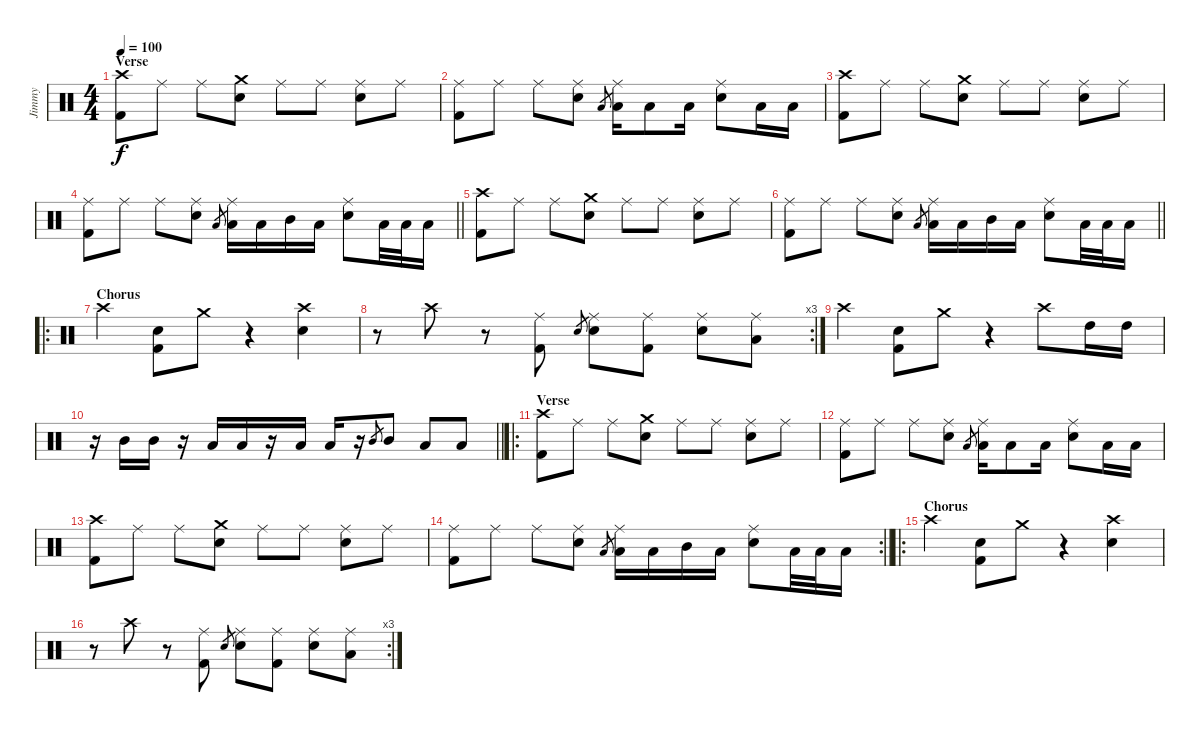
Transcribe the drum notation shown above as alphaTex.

\track ("Jimmy" "Jimmy") {instrument percussion}
\staff {score}
\articulation defaults
\ts (4 4)
\section ("" "Verse")
\tempo 100
\clef neutral
\ks c
("Crash high (hit)" "Kick (hit) 2").8{dy f} "Ride (middle)".8 "Ride (middle)".8 ("Crash medium (hit)" "Snare (hit) 2").8 "Ride (middle)".8 "Ride (middle)".8 ("Ride (middle)" "Snare (hit) 2").8 "Ride (middle)".8 |
("Ride (middle)" "Kick (hit) 2").8 "Ride (middle)".8 "Ride (middle)".8 ("Ride (middle)" "Snare (hit) 2").8 "Low Tom (hit)".8{gr} ("Ride (middle)" "Low Tom (hit)").16 "Low Tom (hit)".8 "Low Tom (hit)".16 ("Ride (middle)" "Snare (hit) 2").8 "Low Floor Tom (hit)".16 "Low Floor Tom (hit)".16 |
("Crash high (hit)" "Kick (hit) 2").8 "Ride (middle)".8 "Ride (middle)".8 ("Crash medium (hit)" "Snare (hit) 2").8 "Ride (middle)".8 "Ride (middle)".8 ("Ride (middle)" "Snare (hit) 2").8 "Ride (middle)".8 |
\barLineRight lightlight
("Ride (middle)" "Kick (hit) 2").8 "Ride (middle)".8 "Ride (middle)".8 ("Ride (middle)" "Snare (hit) 2").8 "Low Tom (hit)".8{gr} ("Ride (middle)" "Low Tom (hit)").16 "Low Tom (hit)".16 "Mid Tom (hit)".16 "Low Tom (hit)".16 ("Ride (middle)" "Snare (hit) 2").8 "Low Floor Tom (hit)".32 "Low Floor Tom (hit)".32 "Low Floor Tom (hit)".16 |
("Crash high (hit)" "Kick (hit) 2").8 "Ride (middle)".8 "Ride (middle)".8 ("Crash medium (hit)" "Snare (hit) 2").8 "Ride (middle)".8 "Ride (middle)".8 ("Ride (middle)" "Snare (hit) 2").8 "Ride (middle)".8 |
\barLineRight lightlight
("Ride (middle)" "Kick (hit) 2").8 "Ride (middle)".8 "Ride (middle)".8 ("Ride (middle)" "Snare (hit) 2").8 "Low Tom (hit)".8{gr} ("Ride (middle)" "Low Tom (hit)").16 "Low Tom (hit)".16 "Mid Tom (hit)".16 "Low Tom (hit)".16 ("Ride (middle)" "Snare (hit) 2").8 "Low Floor Tom (hit)".32 "Low Floor Tom (hit)".32 "Low Floor Tom (hit)".16 |
\ro
\section ("" "Chorus")
"Crash high (hit)".4 ("Snare (hit) 2" "Kick (hit) 2").8 "Crash medium (hit)".8 r.4 ("Crash high (hit)" "Snare (hit) 2").4 |
\rc 3
r.8 "Crash high (hit)".8 r.8 ("Ride (middle)" "Kick (hit) 2").8 "Snare (hit) 2".8{gr} ("Ride (middle)" "Snare (hit) 2").8 ("Ride (middle)" "Kick (hit) 2").8 ("Ride (middle)" "Snare (hit) 2").8 ("Ride (middle)" "Low Tom (hit)").8 |
"Crash high (hit)".4 ("Snare (hit) 2" "Kick (hit) 2").8 "Crash medium (hit)".8 r.4 "Crash high (hit)".8 "High Tom (hit)".16 "High Tom (hit)".16 |
\barLineRight lightlight
r.16 "Mid Tom (hit)".16 "Mid Tom (hit)".16 r.16 "Low Tom (hit)".16 "Low Tom (hit)".16 r.16 "Low Floor Tom (hit)".16 "Low Floor Tom (hit)".16 r.16 "Mid Tom (hit)".8{gr} "Mid Tom (hit)".8 "Low Tom (hit)".8 "Low Floor Tom (hit)".8 |
\ro
\section ("" "Verse")
("Crash high (hit)" "Kick (hit) 2").8 "Ride (middle)".8 "Ride (middle)".8 ("Crash medium (hit)" "Snare (hit) 2").8 "Ride (middle)".8 "Ride (middle)".8 ("Ride (middle)" "Snare (hit) 2").8 "Ride (middle)".8 |
("Ride (middle)" "Kick (hit) 2").8 "Ride (middle)".8 "Ride (middle)".8 ("Ride (middle)" "Snare (hit) 2").8 "Low Tom (hit)".8{gr} ("Ride (middle)" "Low Tom (hit)").16 "Low Tom (hit)".8 "Low Tom (hit)".16 ("Ride (middle)" "Snare (hit) 2").8 "Low Floor Tom (hit)".16 "Low Floor Tom (hit)".16 |
("Crash high (hit)" "Kick (hit) 2").8 "Ride (middle)".8 "Ride (middle)".8 ("Crash medium (hit)" "Snare (hit) 2").8 "Ride (middle)".8 "Ride (middle)".8 ("Ride (middle)" "Snare (hit) 2").8 "Ride (middle)".8 |
\rc 2
\barLineRight lightlight
("Ride (middle)" "Kick (hit) 2").8 "Ride (middle)".8 "Ride (middle)".8 ("Ride (middle)" "Snare (hit) 2").8 "Low Tom (hit)".8{gr} ("Ride (middle)" "Low Tom (hit)").16 "Low Tom (hit)".16 "Mid Tom (hit)".16 "Low Tom (hit)".16 ("Ride (middle)" "Snare (hit) 2").8 "Low Floor Tom (hit)".32 "Low Floor Tom (hit)".32 "Low Floor Tom (hit)".16 |
\ro
\section ("" "Chorus")
"Crash high (hit)".4 ("Snare (hit) 2" "Kick (hit) 2").8 "Crash medium (hit)".8 r.4 ("Crash high (hit)" "Snare (hit) 2").4 |
\rc 3
r.8 "Crash high (hit)".8 r.8 ("Ride (middle)" "Kick (hit) 2").8 "Snare (hit) 2".8{gr} ("Ride (middle)" "Snare (hit) 2").8 ("Ride (middle)" "Kick (hit) 2").8 ("Ride (middle)" "Snare (hit) 2").8 ("Ride (middle)" "Low Tom (hit)").8
